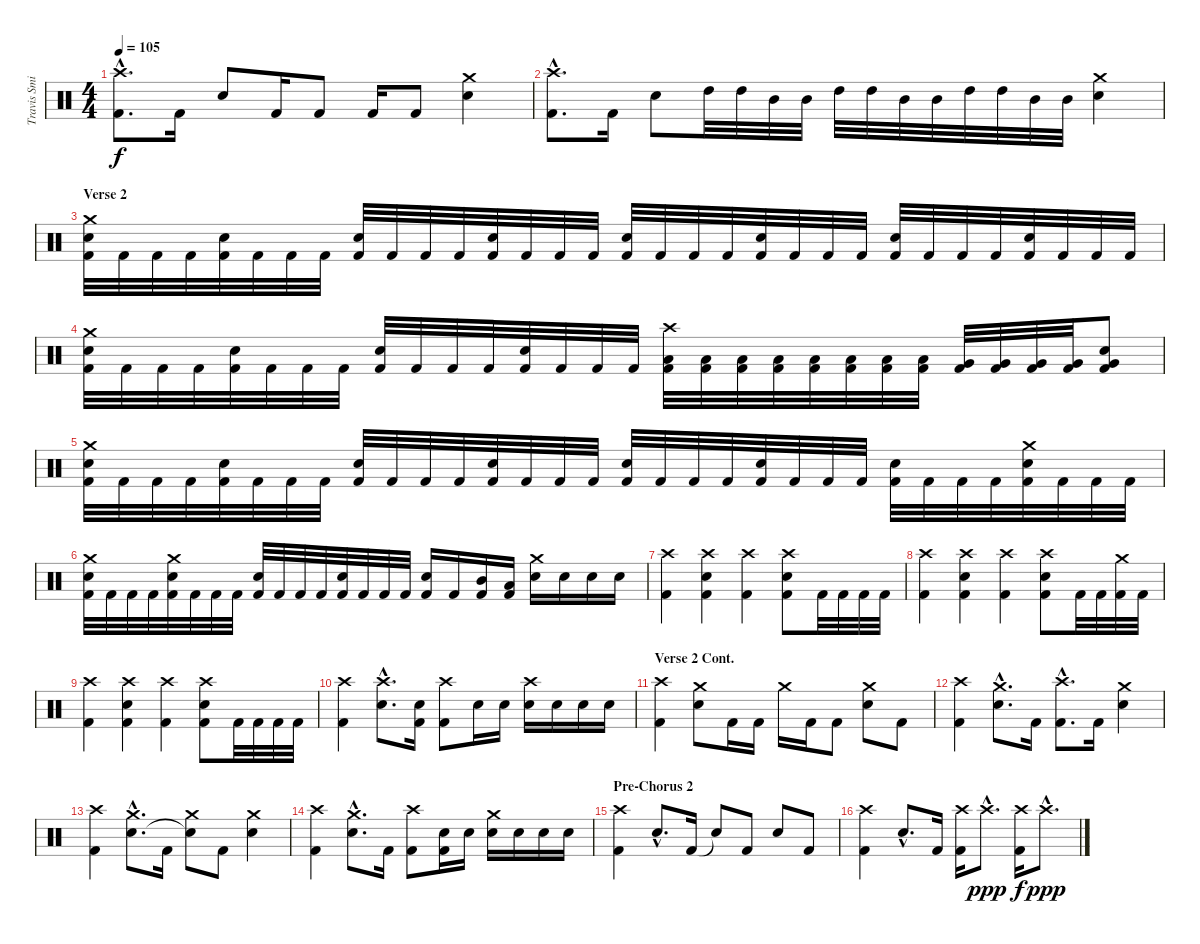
\track ("Travis Smith" "Travis Smi") {instrument percussion}
\staff {score}
\articulation defaults
\ts (4 4)
\tempo 105
\clef neutral
\ks c
("Crash high (hit)"{hac} "Kick (hit) 2"{hac}).8{d dy f} "Kick (hit) 2".16 "Snare (hit) 2".8 "Kick (hit) 2".16 "Kick (hit) 2".8 "Kick (hit) 2".16 "Kick (hit) 2".8 ("Crash medium (hit)" "Snare (hit) 2").4 |
("Crash high (hit)"{hac} "Kick (hit) 2"{hac}).8{d} "Kick (hit) 2".16 "Snare (hit) 2".8 "High Tom (hit)".32 "High Tom (hit)".32 "Mid Tom (hit)".32 "Mid Tom (hit)".32 "High Tom (hit)".32 "High Tom (hit)".32 "Mid Tom (hit)".32 "Mid Tom (hit)".32 "High Tom (hit)".32 "High Tom (hit)".32 "Mid Tom (hit)".32 "Mid Tom (hit)".32 ("Crash medium (hit)" "Snare (hit) 2").4 |
\section ("" "Verse 2")
("Crash medium (hit)" "Snare (hit) 2" "Kick (hit) 2").32 "Kick (hit) 2".32 "Kick (hit) 2".32 "Kick (hit) 2".32 ("Snare (hit) 2" "Kick (hit) 2").32 "Kick (hit) 2".32 "Kick (hit) 2".32 "Kick (hit) 2".32 ("Snare (hit) 2" "Kick (hit) 2").32 "Kick (hit) 2".32 "Kick (hit) 2".32 "Kick (hit) 2".32 ("Snare (hit) 2" "Kick (hit) 2").32 "Kick (hit) 2".32 "Kick (hit) 2".32 "Kick (hit) 2".32 ("Snare (hit) 2" "Kick (hit) 2").32 "Kick (hit) 2".32 "Kick (hit) 2".32 "Kick (hit) 2".32 ("Snare (hit) 2" "Kick (hit) 2").32 "Kick (hit) 2".32 "Kick (hit) 2".32 "Kick (hit) 2".32 ("Snare (hit) 2" "Kick (hit) 2").32 "Kick (hit) 2".32 "Kick (hit) 2".32 "Kick (hit) 2".32 ("Snare (hit) 2" "Kick (hit) 2").32 "Kick (hit) 2".32 "Kick (hit) 2".32 "Kick (hit) 2".32 |
("Crash medium (hit)" "Snare (hit) 2" "Kick (hit) 2").32 "Kick (hit) 2".32 "Kick (hit) 2".32 "Kick (hit) 2".32 ("Snare (hit) 2" "Kick (hit) 2").32 "Kick (hit) 2".32 "Kick (hit) 2".32 "Kick (hit) 2".32 ("Snare (hit) 2" "Kick (hit) 2").32 "Kick (hit) 2".32 "Kick (hit) 2".32 "Kick (hit) 2".32 ("Snare (hit) 2" "Kick (hit) 2").32 "Kick (hit) 2".32 "Kick (hit) 2".32 "Kick (hit) 2".32 ("Crash high (hit)" "Low Tom (hit)" "Kick (hit) 2").32 ("Low Tom (hit)" "Kick (hit) 2").32 ("Low Tom (hit)" "Kick (hit) 2").32 ("Low Tom (hit)" "Kick (hit) 2").32 ("Low Tom (hit)" "Kick (hit) 2").32 ("Low Tom (hit)" "Kick (hit) 2").32 ("Low Tom (hit)" "Kick (hit) 2").32 ("Low Tom (hit)" "Kick (hit) 2").32 ("Very Low Tom (hit)" "Kick (hit) 2").32 ("Very Low Tom (hit)" "Kick (hit) 2").32 ("Very Low Tom (hit)" "Kick (hit) 2").32 ("Very Low Tom (hit)" "Kick (hit) 2").32 ("Very Low Tom (hit)" "Snare (hit) 2" "Kick (hit) 2").8 |
("Crash medium (hit)" "Snare (hit) 2" "Kick (hit) 2").32 "Kick (hit) 2".32 "Kick (hit) 2".32 "Kick (hit) 2".32 ("Snare (hit) 2" "Kick (hit) 2").32 "Kick (hit) 2".32 "Kick (hit) 2".32 "Kick (hit) 2".32 ("Snare (hit) 2" "Kick (hit) 2").32 "Kick (hit) 2".32 "Kick (hit) 2".32 "Kick (hit) 2".32 ("Snare (hit) 2" "Kick (hit) 2").32 "Kick (hit) 2".32 "Kick (hit) 2".32 "Kick (hit) 2".32 ("Snare (hit) 2" "Kick (hit) 2").32 "Kick (hit) 2".32 "Kick (hit) 2".32 "Kick (hit) 2".32 ("Snare (hit) 2" "Kick (hit) 2").32 "Kick (hit) 2".32 "Kick (hit) 2".32 "Kick (hit) 2".32 ("Snare (hit) 2" "Kick (hit) 2").32 "Kick (hit) 2".32 "Kick (hit) 2".32 "Kick (hit) 2".32 ("Crash medium (hit)" "Snare (hit) 2" "Kick (hit) 2").32 "Kick (hit) 2".32 "Kick (hit) 2".32 "Kick (hit) 2".32 |
("Crash medium (hit)" "Snare (hit) 2" "Kick (hit) 2").32 "Kick (hit) 2".32 "Kick (hit) 2".32 "Kick (hit) 2".32 ("Crash medium (hit)" "Snare (hit) 2" "Kick (hit) 2").32 "Kick (hit) 2".32 "Kick (hit) 2".32 "Kick (hit) 2".32 ("Snare (hit) 2" "Kick (hit) 2").32 "Kick (hit) 2".32 "Kick (hit) 2".32 "Kick (hit) 2".32 ("Snare (hit) 2" "Kick (hit) 2").32 "Kick (hit) 2".32 "Kick (hit) 2".32 "Kick (hit) 2".32 ("Snare (hit) 2" "Kick (hit) 2").16 "Kick (hit) 2".16 ("Mid Tom (hit)" "Kick (hit) 2").16 ("Low Tom (hit)" "Kick (hit) 2").16 ("Crash medium (hit)" "Snare (hit) 2").16 "Snare (hit) 2".16 "Snare (hit) 2".16 "Snare (hit) 2".16 |
("Crash high (hit)" "Kick (hit) 2").4 ("Crash high (hit)" "Snare (hit) 2" "Kick (hit) 2").4 ("Crash high (hit)" "Kick (hit) 2").4 ("Crash high (hit)" "Snare (hit) 2" "Kick (hit) 2").8 "Kick (hit) 2".32 "Kick (hit) 2".32 "Kick (hit) 2".32 "Kick (hit) 2".32 |
("Crash high (hit)" "Kick (hit) 2").4 ("Crash high (hit)" "Snare (hit) 2" "Kick (hit) 2").4 ("Crash high (hit)" "Kick (hit) 2").4 ("Crash high (hit)" "Snare (hit) 2" "Kick (hit) 2").8 "Kick (hit) 2".32 "Kick (hit) 2".32 ("Crash medium (hit)" "Kick (hit) 2").32 "Kick (hit) 2".32 |
("Crash high (hit)" "Kick (hit) 2").4 ("Crash high (hit)" "Snare (hit) 2" "Kick (hit) 2").4 ("Crash high (hit)" "Kick (hit) 2").4 ("Crash high (hit)" "Snare (hit) 2" "Kick (hit) 2").8 "Kick (hit) 2".32 "Kick (hit) 2".32 "Kick (hit) 2".32 "Kick (hit) 2".32 |
("Crash high (hit)" "Kick (hit) 2").4 ("Crash high (hit)"{hac} "Snare (hit) 2"{hac}).8{d} ("Electric Snare (hit)" "Kick (hit) 2").16 ("Crash high (hit)" "Kick (hit) 2").8 "Snare (hit) 2".16 "Snare (hit) 2".16 ("Crash high (hit)" "Snare (hit) 2").16 "Snare (hit) 2".16 "Snare (hit) 2".16 "Snare (hit) 2".16 |
\section ("" "Verse 2 Cont.")
("Crash high (hit)" "Kick (hit) 2").4 ("Crash medium (hit)" "Snare (hit) 2").8 "Kick (hit) 2".16 "Kick (hit) 2".16 "Crash medium (hit)".16 "Kick (hit) 2".16 "Kick (hit) 2".8 ("Crash medium (hit)" "Snare (hit) 2").8 "Kick (hit) 2".8 |
("Crash high (hit)" "Kick (hit) 2").4 ("Crash medium (hit)"{hac} "Snare (hit) 2"{hac}).8{d} "Kick (hit) 2".16 ("Crash high (hit)"{hac} "Kick (hit) 2"{hac}).8{d} "Kick (hit) 2".16 ("Crash medium (hit)" "Snare (hit) 2").4 |
("Crash high (hit)" "Kick (hit) 2").4 ("Crash medium (hit)"{hac} "Snare (hit) 2"{hac}).8{d} "Kick (hit) 2".16 ("Crash medium (hit)" "Snare (hit)"{t}).8 "Kick (hit) 2".8 ("Crash medium (hit)" "Snare (hit) 2").4 |
("Crash high (hit)" "Kick (hit) 2").4 ("Crash medium (hit)"{hac} "Snare (hit) 2"{hac}).8{d} "Kick (hit) 2".16 ("Crash high (hit)" "Kick (hit) 2").8 ("Snare (hit) 2" "Kick (hit) 2").16 "Snare (hit) 2".16 ("Crash medium (hit)" "Snare (hit) 2").16 "Snare (hit) 2".16 "Snare (hit) 2".16 "Snare (hit) 2".16 |
\section ("" "Pre-Chorus 2")
("Crash high (hit)" "Kick (hit) 2").4 "Snare (hit) 2"{hac}.8{d} "Kick (hit) 2".16 "Snare (hit)"{t}.8 "Kick (hit) 2".8 "Snare (hit) 2".8 "Kick (hit) 2".8 |
("Crash high (hit)" "Kick (hit) 2").4 "Snare (hit) 2"{hac}.8{d} "Kick (hit) 2".16 ("Crash high (hit)" "Kick (hit) 2").16 "Crash high (hit)"{hac}.8{d dy ppp} ("Crash high (hit)" "Kick (hit) 2").16{dy f} "Crash high (hit)"{hac}.8{d dy ppp}
